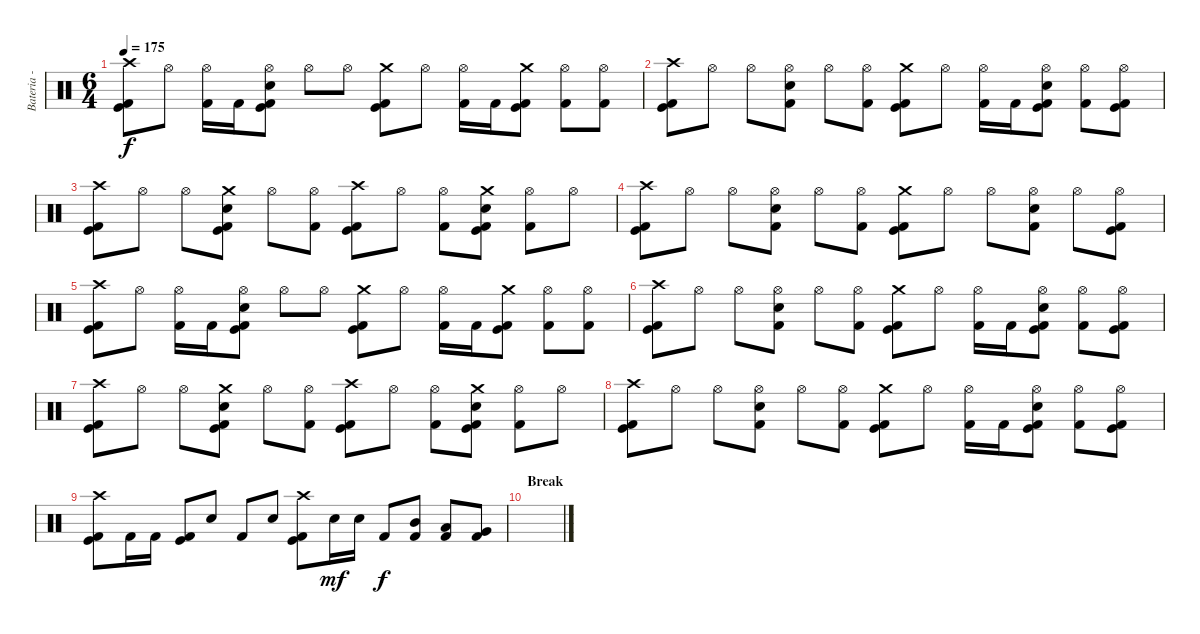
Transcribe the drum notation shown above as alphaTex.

\track ("Bateria - Drums" "Bateria - ") {instrument percussion}
\staff {score}
\articulation defaults
\ts (6 4)
\tempo 175
\clef neutral
\ks c
("Crash high (hit)" "Kick (hit)" "Kick (hit) 2").8{dy f} "Hi-Hat (open)".8 ("Hi-Hat (open)" "Kick (hit) 2").16 "Kick (hit) 2".16 ("Hi-Hat (open)" "Snare (hit) 2" "Kick (hit)" "Kick (hit) 2").8 "Hi-Hat (open)".8 "Hi-Hat (open)".8 ("Crash medium (hit)" "Kick (hit)" "Kick (hit) 2").8 "Hi-Hat (open)".8 ("Hi-Hat (open)" "Kick (hit) 2").16 "Kick (hit) 2".16 ("Crash medium (hit)" "Kick (hit)" "Kick (hit) 2").8 ("Hi-Hat (open)" "Kick (hit) 2").8 ("Hi-Hat (open)" "Kick (hit) 2").8 |
("Crash high (hit)" "Kick (hit)" "Kick (hit) 2").8 "Hi-Hat (open)".8 "Hi-Hat (open)".8 ("Hi-Hat (open)" "Snare (hit) 2" "Kick (hit) 2").8 "Hi-Hat (open)".8 ("Hi-Hat (open)" "Kick (hit) 2").8 ("Crash medium (hit)" "Kick (hit)" "Kick (hit) 2").8 "Hi-Hat (open)".8 ("Hi-Hat (open)" "Kick (hit) 2").16 "Kick (hit) 2".16 ("Hi-Hat (open)" "Snare (hit) 2" "Kick (hit)" "Kick (hit) 2").8 ("Hi-Hat (open)" "Kick (hit) 2").8 ("Hi-Hat (open)" "Kick (hit)" "Kick (hit) 2").8 |
("Crash high (hit)" "Kick (hit)" "Kick (hit) 2").8 "Hi-Hat (open)".8 "Hi-Hat (open)".8 ("Crash medium (hit)" "Snare (hit) 2" "Kick (hit)" "Kick (hit) 2").8 "Hi-Hat (open)".8 ("Hi-Hat (open)" "Kick (hit) 2").8 ("Crash high (hit)" "Kick (hit)" "Kick (hit) 2").8 "Hi-Hat (open)".8 ("Hi-Hat (open)" "Kick (hit) 2").8 ("Crash medium (hit)" "Snare (hit) 2" "Kick (hit)" "Kick (hit) 2").8 ("Hi-Hat (open)" "Kick (hit) 2").8 "Hi-Hat (open)".8 |
("Crash high (hit)" "Kick (hit)" "Kick (hit) 2").8 "Hi-Hat (open)".8 "Hi-Hat (open)".8 ("Hi-Hat (open)" "Snare (hit) 2" "Kick (hit) 2").8 "Hi-Hat (open)".8 ("Hi-Hat (open)" "Kick (hit) 2").8 ("Crash medium (hit)" "Kick (hit)" "Kick (hit) 2").8 "Hi-Hat (open)".8 "Hi-Hat (open)".8 ("Hi-Hat (open)" "Snare (hit) 2" "Kick (hit) 2").8 "Hi-Hat (open)".8 ("Hi-Hat (open)" "Kick (hit)" "Kick (hit) 2").8 |
("Crash high (hit)" "Kick (hit)" "Kick (hit) 2").8 "Hi-Hat (open)".8 ("Hi-Hat (open)" "Kick (hit) 2").16 "Kick (hit) 2".16 ("Hi-Hat (open)" "Snare (hit) 2" "Kick (hit)" "Kick (hit) 2").8 "Hi-Hat (open)".8 "Hi-Hat (open)".8 ("Crash medium (hit)" "Kick (hit)" "Kick (hit) 2").8 "Hi-Hat (open)".8 ("Hi-Hat (open)" "Kick (hit) 2").16 "Kick (hit) 2".16 ("Crash medium (hit)" "Kick (hit)" "Kick (hit) 2").8 ("Hi-Hat (open)" "Kick (hit) 2").8 ("Hi-Hat (open)" "Kick (hit) 2").8 |
("Crash high (hit)" "Kick (hit)" "Kick (hit) 2").8 "Hi-Hat (open)".8 "Hi-Hat (open)".8 ("Hi-Hat (open)" "Snare (hit) 2" "Kick (hit) 2").8 "Hi-Hat (open)".8 ("Hi-Hat (open)" "Kick (hit) 2").8 ("Crash medium (hit)" "Kick (hit)" "Kick (hit) 2").8 "Hi-Hat (open)".8 ("Hi-Hat (open)" "Kick (hit) 2").16 "Kick (hit) 2".16 ("Hi-Hat (open)" "Snare (hit) 2" "Kick (hit)" "Kick (hit) 2").8 ("Hi-Hat (open)" "Kick (hit) 2").8 ("Hi-Hat (open)" "Kick (hit)" "Kick (hit) 2").8 |
("Crash high (hit)" "Kick (hit)" "Kick (hit) 2").8 "Hi-Hat (open)".8 "Hi-Hat (open)".8 ("Crash medium (hit)" "Snare (hit) 2" "Kick (hit)" "Kick (hit) 2").8 "Hi-Hat (open)".8 ("Hi-Hat (open)" "Kick (hit) 2").8 ("Crash high (hit)" "Kick (hit)" "Kick (hit) 2").8 "Hi-Hat (open)".8 ("Hi-Hat (open)" "Kick (hit) 2").8 ("Crash medium (hit)" "Snare (hit) 2" "Kick (hit)" "Kick (hit) 2").8 ("Hi-Hat (open)" "Kick (hit) 2").8 "Hi-Hat (open)".8 |
("Crash high (hit)" "Kick (hit)" "Kick (hit) 2").8 "Hi-Hat (open)".8 "Hi-Hat (open)".8 ("Hi-Hat (open)" "Snare (hit) 2" "Kick (hit) 2").8 "Hi-Hat (open)".8 ("Hi-Hat (open)" "Kick (hit) 2").8 ("Crash medium (hit)" "Kick (hit)" "Kick (hit) 2").8 "Hi-Hat (open)".8 ("Hi-Hat (open)" "Kick (hit) 2").16 "Kick (hit) 2".16 ("Hi-Hat (open)" "Snare (hit) 2" "Kick (hit)" "Kick (hit) 2").8 ("Hi-Hat (open)" "Kick (hit) 2").8 ("Hi-Hat (open)" "Kick (hit)" "Kick (hit) 2").8 |
("Crash high (hit)" "Kick (hit)" "Kick (hit) 2").8 "Kick (hit) 2".16 "Kick (hit) 2".16 ("Kick (hit)" "Kick (hit) 2").8 "Snare (hit) 2".8 "Kick (hit) 2".8 "Snare (hit) 2".8 ("Crash high (hit)" "Kick (hit)" "Kick (hit) 2").8 "Snare (hit) 2".16{dy mf} "Snare (hit) 2".16 "Kick (hit) 2".8{dy f} ("Mid Tom (hit)" "Kick (hit) 2").8 ("Low Tom (hit)" "Kick (hit) 2").8 ("Very Low Tom (hit)" "Kick (hit) 2").8 |
\section ("" "Break")
